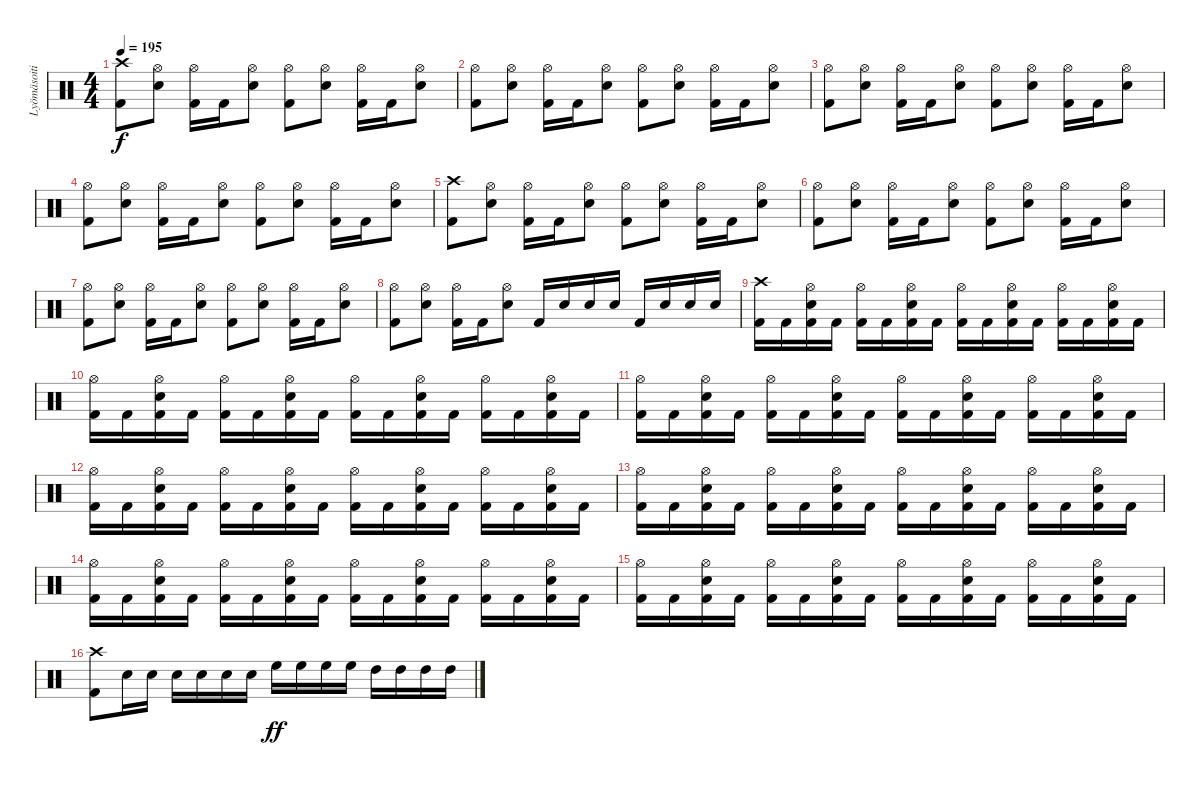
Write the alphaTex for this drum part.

\track ("Lyömäsoitin" "Lyömäsoiti") {instrument percussion}
\staff {score}
\articulation defaults
\ts (4 4)
\tempo 195
\clef neutral
\ks c
("Crash high (hit)" "Kick (hit) 2").8{dy f} ("Hi-Hat (open)" "Snare (hit) 2").8 ("Hi-Hat (open)" "Kick (hit) 2").16 "Kick (hit) 2".16 ("Hi-Hat (open)" "Snare (hit) 2").8 ("Hi-Hat (open)" "Kick (hit) 2").8 ("Hi-Hat (open)" "Snare (hit) 2").8 ("Hi-Hat (open)" "Kick (hit) 2").16 "Kick (hit) 2".16 ("Hi-Hat (open)" "Snare (hit) 2").8 |
("Hi-Hat (open)" "Kick (hit) 2").8 ("Hi-Hat (open)" "Snare (hit) 2").8 ("Hi-Hat (open)" "Kick (hit) 2").16 "Kick (hit) 2".16 ("Hi-Hat (open)" "Snare (hit) 2").8 ("Hi-Hat (open)" "Kick (hit) 2").8 ("Hi-Hat (open)" "Snare (hit) 2").8 ("Hi-Hat (open)" "Kick (hit) 2").16 "Kick (hit) 2".16 ("Hi-Hat (open)" "Snare (hit) 2").8 |
("Hi-Hat (open)" "Kick (hit) 2").8 ("Hi-Hat (open)" "Snare (hit) 2").8 ("Hi-Hat (open)" "Kick (hit) 2").16 "Kick (hit) 2".16 ("Hi-Hat (open)" "Snare (hit) 2").8 ("Hi-Hat (open)" "Kick (hit) 2").8 ("Hi-Hat (open)" "Snare (hit) 2").8 ("Hi-Hat (open)" "Kick (hit) 2").16 "Kick (hit) 2".16 ("Hi-Hat (open)" "Snare (hit) 2").8 |
("Hi-Hat (open)" "Kick (hit) 2").8 ("Hi-Hat (open)" "Snare (hit) 2").8 ("Hi-Hat (open)" "Kick (hit) 2").16 "Kick (hit) 2".16 ("Hi-Hat (open)" "Snare (hit) 2").8 ("Hi-Hat (open)" "Kick (hit) 2").8 ("Hi-Hat (open)" "Snare (hit) 2").8 ("Hi-Hat (open)" "Kick (hit) 2").16 "Kick (hit) 2".16 ("Hi-Hat (open)" "Snare (hit) 2").8 |
("Crash high (hit)" "Kick (hit) 2").8 ("Hi-Hat (open)" "Snare (hit) 2").8 ("Hi-Hat (open)" "Kick (hit) 2").16 "Kick (hit) 2".16 ("Hi-Hat (open)" "Snare (hit) 2").8 ("Hi-Hat (open)" "Kick (hit) 2").8 ("Hi-Hat (open)" "Snare (hit) 2").8 ("Hi-Hat (open)" "Kick (hit) 2").16 "Kick (hit) 2".16 ("Hi-Hat (open)" "Snare (hit) 2").8 |
("Hi-Hat (open)" "Kick (hit) 2").8 ("Hi-Hat (open)" "Snare (hit) 2").8 ("Hi-Hat (open)" "Kick (hit) 2").16 "Kick (hit) 2".16 ("Hi-Hat (open)" "Snare (hit) 2").8 ("Hi-Hat (open)" "Kick (hit) 2").8 ("Hi-Hat (open)" "Snare (hit) 2").8 ("Hi-Hat (open)" "Kick (hit) 2").16 "Kick (hit) 2".16 ("Hi-Hat (open)" "Snare (hit) 2").8 |
("Hi-Hat (open)" "Kick (hit) 2").8 ("Hi-Hat (open)" "Snare (hit) 2").8 ("Hi-Hat (open)" "Kick (hit) 2").16 "Kick (hit) 2".16 ("Hi-Hat (open)" "Snare (hit) 2").8 ("Hi-Hat (open)" "Kick (hit) 2").8 ("Hi-Hat (open)" "Snare (hit) 2").8 ("Hi-Hat (open)" "Kick (hit) 2").16 "Kick (hit) 2".16 ("Hi-Hat (open)" "Snare (hit) 2").8 |
("Hi-Hat (open)" "Kick (hit) 2").8 ("Hi-Hat (open)" "Snare (hit) 2").8 ("Hi-Hat (open)" "Kick (hit) 2").16 "Kick (hit) 2".16 ("Hi-Hat (open)" "Snare (hit) 2").8 "Kick (hit) 2".16 "Snare (hit) 2".16 "Snare (hit) 2".16 "Snare (hit) 2".16 "Kick (hit) 2".16 "Snare (hit) 2".16 "Snare (hit) 2".16 "Snare (hit) 2".16 |
("Crash high (hit)" "Kick (hit) 2").16 "Kick (hit) 2".16 ("Hi-Hat (open)" "Snare (hit) 2" "Kick (hit) 2").16 "Kick (hit) 2".16 ("Hi-Hat (open)" "Kick (hit) 2").16 "Kick (hit) 2".16 ("Hi-Hat (open)" "Snare (hit) 2" "Kick (hit) 2").16 "Kick (hit) 2".16 ("Hi-Hat (open)" "Kick (hit) 2").16 "Kick (hit) 2".16 ("Hi-Hat (open)" "Snare (hit) 2" "Kick (hit) 2").16 "Kick (hit) 2".16 ("Hi-Hat (open)" "Kick (hit) 2").16 "Kick (hit) 2".16 ("Hi-Hat (open)" "Snare (hit) 2" "Kick (hit) 2").16 "Kick (hit) 2".16 |
("Hi-Hat (open)" "Kick (hit) 2").16 "Kick (hit) 2".16 ("Hi-Hat (open)" "Snare (hit) 2" "Kick (hit) 2").16 "Kick (hit) 2".16 ("Hi-Hat (open)" "Kick (hit) 2").16 "Kick (hit) 2".16 ("Hi-Hat (open)" "Snare (hit) 2" "Kick (hit) 2").16 "Kick (hit) 2".16 ("Hi-Hat (open)" "Kick (hit) 2").16 "Kick (hit) 2".16 ("Hi-Hat (open)" "Snare (hit) 2" "Kick (hit) 2").16 "Kick (hit) 2".16 ("Hi-Hat (open)" "Kick (hit) 2").16 "Kick (hit) 2".16 ("Hi-Hat (open)" "Snare (hit) 2" "Kick (hit) 2").16 "Kick (hit) 2".16 |
("Hi-Hat (open)" "Kick (hit) 2").16 "Kick (hit) 2".16 ("Hi-Hat (open)" "Snare (hit) 2" "Kick (hit) 2").16 "Kick (hit) 2".16 ("Hi-Hat (open)" "Kick (hit) 2").16 "Kick (hit) 2".16 ("Hi-Hat (open)" "Snare (hit) 2" "Kick (hit) 2").16 "Kick (hit) 2".16 ("Hi-Hat (open)" "Kick (hit) 2").16 "Kick (hit) 2".16 ("Hi-Hat (open)" "Snare (hit) 2" "Kick (hit) 2").16 "Kick (hit) 2".16 ("Hi-Hat (open)" "Kick (hit) 2").16 "Kick (hit) 2".16 ("Hi-Hat (open)" "Snare (hit) 2" "Kick (hit) 2").16 "Kick (hit) 2".16 |
("Hi-Hat (open)" "Kick (hit) 2").16 "Kick (hit) 2".16 ("Hi-Hat (open)" "Snare (hit) 2" "Kick (hit) 2").16 "Kick (hit) 2".16 ("Hi-Hat (open)" "Kick (hit) 2").16 "Kick (hit) 2".16 ("Hi-Hat (open)" "Snare (hit) 2" "Kick (hit) 2").16 "Kick (hit) 2".16 ("Hi-Hat (open)" "Kick (hit) 2").16 "Kick (hit) 2".16 ("Hi-Hat (open)" "Snare (hit) 2" "Kick (hit) 2").16 "Kick (hit) 2".16 ("Hi-Hat (open)" "Kick (hit) 2").16 "Kick (hit) 2".16 ("Hi-Hat (open)" "Snare (hit) 2" "Kick (hit) 2").16 "Kick (hit) 2".16 |
("Hi-Hat (open)" "Kick (hit) 2").16 "Kick (hit) 2".16 ("Hi-Hat (open)" "Snare (hit) 2" "Kick (hit) 2").16 "Kick (hit) 2".16 ("Hi-Hat (open)" "Kick (hit) 2").16 "Kick (hit) 2".16 ("Hi-Hat (open)" "Snare (hit) 2" "Kick (hit) 2").16 "Kick (hit) 2".16 ("Hi-Hat (open)" "Kick (hit) 2").16 "Kick (hit) 2".16 ("Hi-Hat (open)" "Snare (hit) 2" "Kick (hit) 2").16 "Kick (hit) 2".16 ("Hi-Hat (open)" "Kick (hit) 2").16 "Kick (hit) 2".16 ("Hi-Hat (open)" "Snare (hit) 2" "Kick (hit) 2").16 "Kick (hit) 2".16 |
("Hi-Hat (open)" "Kick (hit) 2").16 "Kick (hit) 2".16 ("Hi-Hat (open)" "Snare (hit) 2" "Kick (hit) 2").16 "Kick (hit) 2".16 ("Hi-Hat (open)" "Kick (hit) 2").16 "Kick (hit) 2".16 ("Hi-Hat (open)" "Snare (hit) 2" "Kick (hit) 2").16 "Kick (hit) 2".16 ("Hi-Hat (open)" "Kick (hit) 2").16 "Kick (hit) 2".16 ("Hi-Hat (open)" "Snare (hit) 2" "Kick (hit) 2").16 "Kick (hit) 2".16 ("Hi-Hat (open)" "Kick (hit) 2").16 "Kick (hit) 2".16 ("Hi-Hat (open)" "Snare (hit) 2" "Kick (hit) 2").16 "Kick (hit) 2".16 |
("Hi-Hat (open)" "Kick (hit) 2").16 "Kick (hit) 2".16 ("Hi-Hat (open)" "Snare (hit) 2" "Kick (hit) 2").16 "Kick (hit) 2".16 ("Hi-Hat (open)" "Kick (hit) 2").16 "Kick (hit) 2".16 ("Hi-Hat (open)" "Snare (hit) 2" "Kick (hit) 2").16 "Kick (hit) 2".16 ("Hi-Hat (open)" "Kick (hit) 2").16 "Kick (hit) 2".16 ("Hi-Hat (open)" "Snare (hit) 2" "Kick (hit) 2").16 "Kick (hit) 2".16 ("Hi-Hat (open)" "Kick (hit) 2").16 "Kick (hit) 2".16 ("Hi-Hat (open)" "Snare (hit) 2" "Kick (hit) 2").16 "Kick (hit) 2".16 |
("Crash high (hit)" "Kick (hit) 2").8 "Snare (hit) 2".16 "Snare (hit) 2".16 "Snare (hit) 2".16 "Snare (hit) 2".16 "Snare (hit) 2".16 "Snare (hit) 2".16 "High Floor Tom (hit)".16{dy ff} "High Floor Tom (hit)".16 "High Floor Tom (hit)".16 "High Floor Tom (hit)".16 "High Tom (hit)".16 "High Tom (hit)".16 "High Tom (hit)".16 "High Tom (hit)".16
